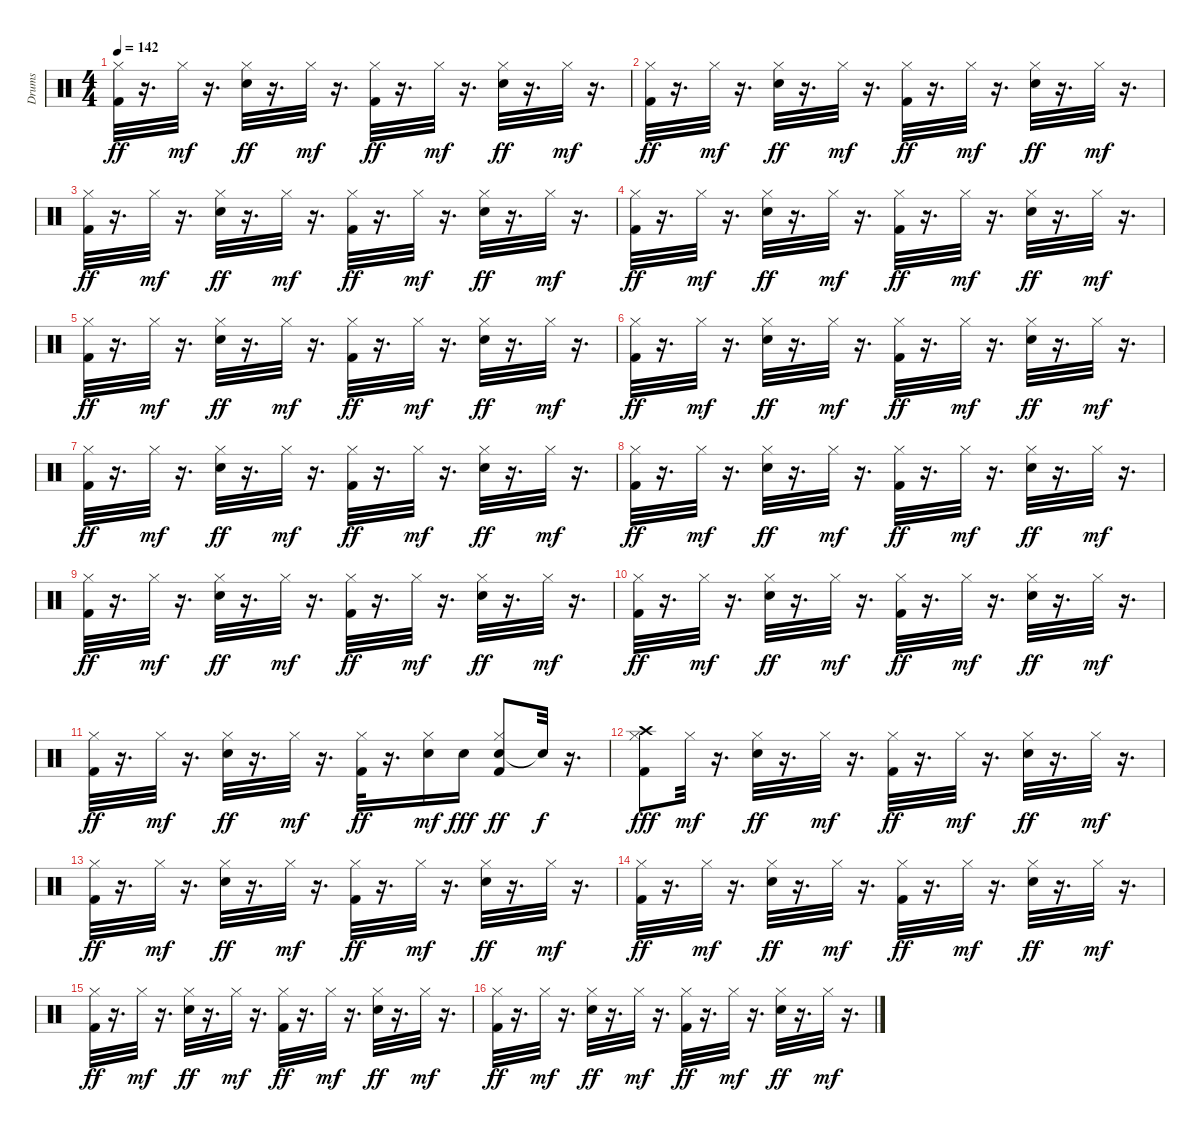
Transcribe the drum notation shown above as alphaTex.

\track ("Drums" "Drums") {instrument percussion}
\staff {score}
\articulation defaults
\ts (4 4)
\tempo 142
\clef neutral
\ks c
("Kick (hit) 2" "Hi-Hat (closed)").32{dy ff} r.16{d} "Hi-Hat (closed)".32{dy mf} r.16{d} ("Snare (hit) 2" "Hi-Hat (closed)").32{dy ff} r.16{d} "Hi-Hat (closed)".32{dy mf} r.16{d} ("Kick (hit) 2" "Hi-Hat (closed)").32{dy ff} r.16{d} "Hi-Hat (closed)".32{dy mf} r.16{d} ("Snare (hit) 2" "Hi-Hat (closed)").32{dy ff} r.16{d} "Hi-Hat (closed)".32{dy mf} r.16{d} |
("Kick (hit) 2" "Hi-Hat (closed)").32{dy ff} r.16{d} "Hi-Hat (closed)".32{dy mf} r.16{d} ("Snare (hit) 2" "Hi-Hat (closed)").32{dy ff} r.16{d} "Hi-Hat (closed)".32{dy mf} r.16{d} ("Kick (hit) 2" "Hi-Hat (closed)").32{dy ff} r.16{d} "Hi-Hat (closed)".32{dy mf} r.16{d} ("Snare (hit) 2" "Hi-Hat (closed)").32{dy ff} r.16{d} "Hi-Hat (closed)".32{dy mf} r.16{d} |
("Kick (hit) 2" "Hi-Hat (closed)").32{dy ff} r.16{d} "Hi-Hat (closed)".32{dy mf} r.16{d} ("Snare (hit) 2" "Hi-Hat (closed)").32{dy ff} r.16{d} "Hi-Hat (closed)".32{dy mf} r.16{d} ("Kick (hit) 2" "Hi-Hat (closed)").32{dy ff} r.16{d} "Hi-Hat (closed)".32{dy mf} r.16{d} ("Snare (hit) 2" "Hi-Hat (closed)").32{dy ff} r.16{d} "Hi-Hat (closed)".32{dy mf} r.16{d} |
("Kick (hit) 2" "Hi-Hat (closed)").32{dy ff} r.16{d} "Hi-Hat (closed)".32{dy mf} r.16{d} ("Snare (hit) 2" "Hi-Hat (closed)").32{dy ff} r.16{d} "Hi-Hat (closed)".32{dy mf} r.16{d} ("Kick (hit) 2" "Hi-Hat (closed)").32{dy ff} r.16{d} "Hi-Hat (closed)".32{dy mf} r.16{d} ("Snare (hit) 2" "Hi-Hat (closed)").32{dy ff} r.16{d} "Hi-Hat (closed)".32{dy mf} r.16{d} |
("Kick (hit) 2" "Hi-Hat (closed)").32{dy ff} r.16{d} "Hi-Hat (closed)".32{dy mf} r.16{d} ("Snare (hit) 2" "Hi-Hat (closed)").32{dy ff} r.16{d} "Hi-Hat (closed)".32{dy mf} r.16{d} ("Kick (hit) 2" "Hi-Hat (closed)").32{dy ff} r.16{d} "Hi-Hat (closed)".32{dy mf} r.16{d} ("Snare (hit) 2" "Hi-Hat (closed)").32{dy ff} r.16{d} "Hi-Hat (closed)".32{dy mf} r.16{d} |
("Kick (hit) 2" "Hi-Hat (closed)").32{dy ff} r.16{d} "Hi-Hat (closed)".32{dy mf} r.16{d} ("Snare (hit) 2" "Hi-Hat (closed)").32{dy ff} r.16{d} "Hi-Hat (closed)".32{dy mf} r.16{d} ("Kick (hit) 2" "Hi-Hat (closed)").32{dy ff} r.16{d} "Hi-Hat (closed)".32{dy mf} r.16{d} ("Snare (hit) 2" "Hi-Hat (closed)").32{dy ff} r.16{d} "Hi-Hat (closed)".32{dy mf} r.16{d} |
("Kick (hit) 2" "Hi-Hat (closed)").32{dy ff} r.16{d} "Hi-Hat (closed)".32{dy mf} r.16{d} ("Snare (hit) 2" "Hi-Hat (closed)").32{dy ff} r.16{d} "Hi-Hat (closed)".32{dy mf} r.16{d} ("Kick (hit) 2" "Hi-Hat (closed)").32{dy ff} r.16{d} "Hi-Hat (closed)".32{dy mf} r.16{d} ("Snare (hit) 2" "Hi-Hat (closed)").32{dy ff} r.16{d} "Hi-Hat (closed)".32{dy mf} r.16{d} |
("Kick (hit) 2" "Hi-Hat (closed)").32{dy ff} r.16{d} "Hi-Hat (closed)".32{dy mf} r.16{d} ("Snare (hit) 2" "Hi-Hat (closed)").32{dy ff} r.16{d} "Hi-Hat (closed)".32{dy mf} r.16{d} ("Kick (hit) 2" "Hi-Hat (closed)").32{dy ff} r.16{d} "Hi-Hat (closed)".32{dy mf} r.16{d} ("Snare (hit) 2" "Hi-Hat (closed)").32{dy ff} r.16{d} "Hi-Hat (closed)".32{dy mf} r.16{d} |
("Kick (hit) 2" "Hi-Hat (closed)").32{dy ff} r.16{d} "Hi-Hat (closed)".32{dy mf} r.16{d} ("Snare (hit) 2" "Hi-Hat (closed)").32{dy ff} r.16{d} "Hi-Hat (closed)".32{dy mf} r.16{d} ("Kick (hit) 2" "Hi-Hat (closed)").32{dy ff} r.16{d} "Hi-Hat (closed)".32{dy mf} r.16{d} ("Snare (hit) 2" "Hi-Hat (closed)").32{dy ff} r.16{d} "Hi-Hat (closed)".32{dy mf} r.16{d} |
("Kick (hit) 2" "Hi-Hat (closed)").32{dy ff} r.16{d} "Hi-Hat (closed)".32{dy mf} r.16{d} ("Snare (hit) 2" "Hi-Hat (closed)").32{dy ff} r.16{d} "Hi-Hat (closed)".32{dy mf} r.16{d} ("Kick (hit) 2" "Hi-Hat (closed)").32{dy ff} r.16{d} "Hi-Hat (closed)".32{dy mf} r.16{d} ("Snare (hit) 2" "Hi-Hat (closed)").32{dy ff} r.16{d} "Hi-Hat (closed)".32{dy mf} r.16{d} |
("Kick (hit) 2" "Hi-Hat (closed)").32{dy ff} r.16{d} "Hi-Hat (closed)".32{dy mf} r.16{d} ("Snare (hit) 2" "Hi-Hat (closed)").32{dy ff} r.16{d} "Hi-Hat (closed)".32{dy mf} r.16{d} ("Kick (hit) 2" "Hi-Hat (closed)").32{dy ff} r.16{d} ("Snare (hit) 2" "Hi-Hat (closed)").16{dy mf} "Snare (hit) 2".16{dy fff} ("Snare (hit) 2" "Kick (hit) 2" "Hi-Hat (closed)").8{dy ff} "Snare (hit)"{t}.32{dy f} r.16{d} |
("Kick (hit) 2" "Hi-Hat (closed)" "Crash high (hit)").8{dy fff} "Hi-Hat (closed)".32{dy mf} r.16{d} ("Snare (hit) 2" "Hi-Hat (closed)").32{dy ff} r.16{d} "Hi-Hat (closed)".32{dy mf} r.16{d} ("Kick (hit) 2" "Hi-Hat (closed)").32{dy ff} r.16{d} "Hi-Hat (closed)".32{dy mf} r.16{d} ("Snare (hit) 2" "Hi-Hat (closed)").32{dy ff} r.16{d} "Hi-Hat (closed)".32{dy mf} r.16{d} |
("Kick (hit) 2" "Hi-Hat (closed)").32{dy ff} r.16{d} "Hi-Hat (closed)".32{dy mf} r.16{d} ("Snare (hit) 2" "Hi-Hat (closed)").32{dy ff} r.16{d} "Hi-Hat (closed)".32{dy mf} r.16{d} ("Kick (hit) 2" "Hi-Hat (closed)").32{dy ff} r.16{d} "Hi-Hat (closed)".32{dy mf} r.16{d} ("Snare (hit) 2" "Hi-Hat (closed)").32{dy ff} r.16{d} "Hi-Hat (closed)".32{dy mf} r.16{d} |
("Kick (hit) 2" "Hi-Hat (closed)").32{dy ff} r.16{d} "Hi-Hat (closed)".32{dy mf} r.16{d} ("Snare (hit) 2" "Hi-Hat (closed)").32{dy ff} r.16{d} "Hi-Hat (closed)".32{dy mf} r.16{d} ("Kick (hit) 2" "Hi-Hat (closed)").32{dy ff} r.16{d} "Hi-Hat (closed)".32{dy mf} r.16{d} ("Snare (hit) 2" "Hi-Hat (closed)").32{dy ff} r.16{d} "Hi-Hat (closed)".32{dy mf} r.16{d} |
("Kick (hit) 2" "Hi-Hat (closed)").32{dy ff} r.16{d} "Hi-Hat (closed)".32{dy mf} r.16{d} ("Snare (hit) 2" "Hi-Hat (closed)").32{dy ff} r.16{d} "Hi-Hat (closed)".32{dy mf} r.16{d} ("Kick (hit) 2" "Hi-Hat (closed)").32{dy ff} r.16{d} "Hi-Hat (closed)".32{dy mf} r.16{d} ("Snare (hit) 2" "Hi-Hat (closed)").32{dy ff} r.16{d} "Hi-Hat (closed)".32{dy mf} r.16{d} |
("Kick (hit) 2" "Hi-Hat (closed)").32{dy ff} r.16{d} "Hi-Hat (closed)".32{dy mf} r.16{d} ("Snare (hit) 2" "Hi-Hat (closed)").32{dy ff} r.16{d} "Hi-Hat (closed)".32{dy mf} r.16{d} ("Kick (hit) 2" "Hi-Hat (closed)").32{dy ff} r.16{d} "Hi-Hat (closed)".32{dy mf} r.16{d} ("Snare (hit) 2" "Hi-Hat (closed)").32{dy ff} r.16{d} "Hi-Hat (closed)".32{dy mf} r.16{d}
